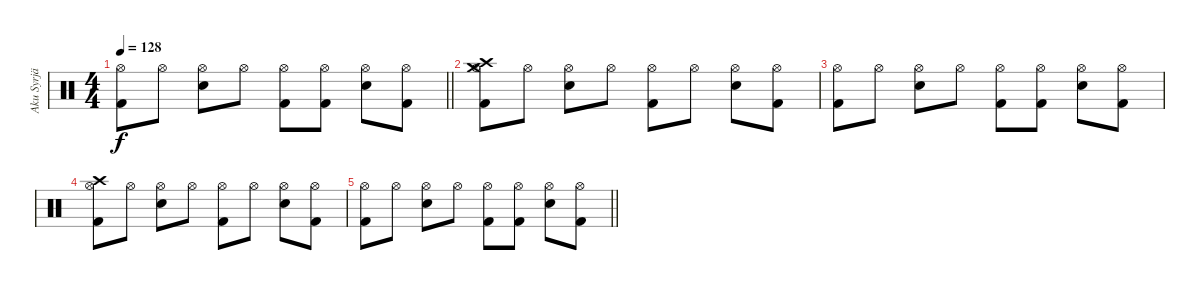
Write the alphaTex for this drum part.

\track ("Aku Syrjä" "Aku Syrjä") {instrument percussion}
\staff {score}
\articulation defaults
\ts (4 4)
\tempo 128
\clef neutral
\barLineRight lightlight
\ks c
("Hi-Hat (open)" "Kick (hit) 2").8{dy f} "Hi-Hat (open)".8 ("Hi-Hat (open)" "Electric Snare (hit)").8 "Hi-Hat (open)".8 ("Hi-Hat (open)" "Kick (hit) 2").8 ("Hi-Hat (open)" "Kick (hit) 2").8 ("Hi-Hat (open)" "Electric Snare (hit)").8 ("Hi-Hat (open)" "Kick (hit) 2").8 |
("Crash high (hit)" "Crash medium (hit)" "Hi-Hat (open)" "Kick (hit) 2").8 "Hi-Hat (open)".8 ("Hi-Hat (open)" "Electric Snare (hit)").8 "Hi-Hat (open)".8 ("Hi-Hat (open)" "Kick (hit) 2").8 "Hi-Hat (open)".8 ("Hi-Hat (open)" "Electric Snare (hit)").8 ("Hi-Hat (open)" "Kick (hit) 2").8 |
("Hi-Hat (open)" "Kick (hit) 2").8 "Hi-Hat (open)".8 ("Hi-Hat (open)" "Electric Snare (hit)").8 "Hi-Hat (open)".8 ("Hi-Hat (open)" "Kick (hit) 2").8 ("Hi-Hat (open)" "Kick (hit) 2").8 ("Hi-Hat (open)" "Electric Snare (hit)").8 ("Hi-Hat (open)" "Kick (hit) 2").8 |
("Crash high (hit)" "Hi-Hat (open)" "Kick (hit) 2").8 "Hi-Hat (open)".8 ("Hi-Hat (open)" "Electric Snare (hit)").8 "Hi-Hat (open)".8 ("Hi-Hat (open)" "Kick (hit) 2").8 "Hi-Hat (open)".8 ("Hi-Hat (open)" "Electric Snare (hit)").8 ("Hi-Hat (open)" "Kick (hit) 2").8 |
\barLineRight lightlight
("Hi-Hat (open)" "Kick (hit) 2").8 "Hi-Hat (open)".8 ("Hi-Hat (open)" "Electric Snare (hit)").8 "Hi-Hat (open)".8 ("Hi-Hat (open)" "Kick (hit) 2").8 ("Hi-Hat (open)" "Kick (hit) 2").8 ("Hi-Hat (open)" "Electric Snare (hit)").8 ("Hi-Hat (open)" "Kick (hit) 2").8
